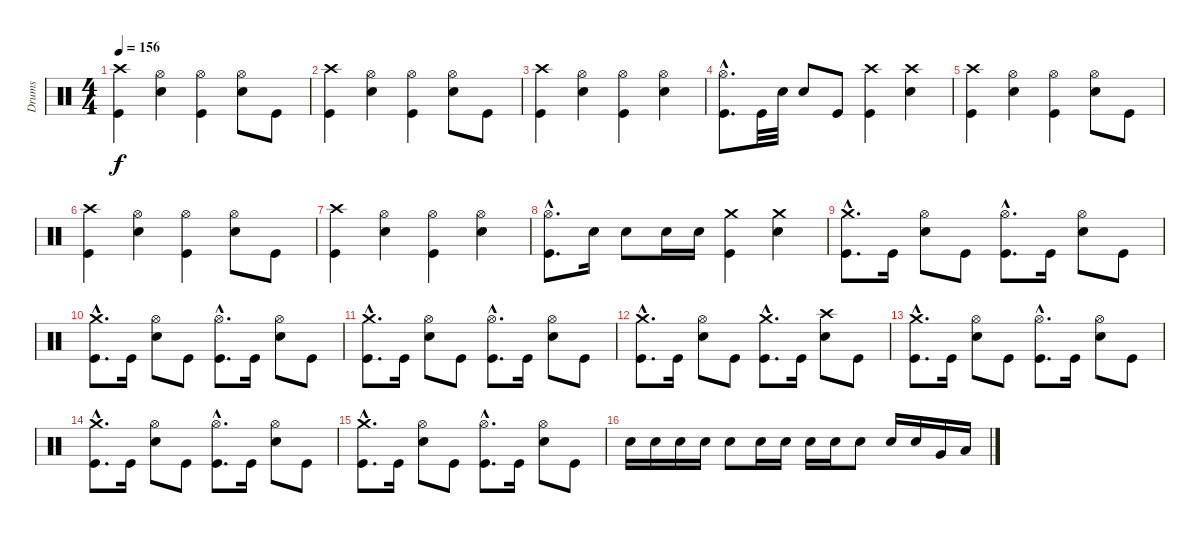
\track ("Drums" "Drums") {instrument percussion}
\staff {score}
\articulation defaults
\ts (4 4)
\tempo 156
\clef neutral
\ks c
("Kick (hit)" "Crash high (hit)").4{dy f} ("Electric Snare (hit)" "Hi-Hat (open)").4 ("Kick (hit)" "Hi-Hat (open)").4 ("Electric Snare (hit)" "Hi-Hat (open)").8 "Kick (hit)".8 |
("Kick (hit)" "Crash high (hit)").4 ("Electric Snare (hit)" "Hi-Hat (open)").4 ("Kick (hit)" "Hi-Hat (open)").4 ("Electric Snare (hit)" "Hi-Hat (open)").8 "Kick (hit)".8 |
("Kick (hit)" "Crash high (hit)").4 ("Electric Snare (hit)" "Hi-Hat (open)").4 ("Kick (hit)" "Hi-Hat (open)").4 ("Electric Snare (hit)" "Hi-Hat (open)").4 |
("Kick (hit)"{hac} "Hi-Hat (open)").8{d} "Kick (hit)".32 "Electric Snare (hit)".32 "Electric Snare (hit)".8 "Kick (hit)".8 ("Kick (hit)" "Crash high (hit)").4 ("Electric Snare (hit)" "Crash high (hit)").4 |
("Kick (hit)" "Crash high (hit)").4 ("Electric Snare (hit)" "Hi-Hat (open)").4 ("Kick (hit)" "Hi-Hat (open)").4 ("Electric Snare (hit)" "Hi-Hat (open)").8 "Kick (hit)".8 |
("Kick (hit)" "Crash high (hit)").4 ("Electric Snare (hit)" "Hi-Hat (open)").4 ("Kick (hit)" "Hi-Hat (open)").4 ("Electric Snare (hit)" "Hi-Hat (open)").8 "Kick (hit)".8 |
("Kick (hit)" "Crash high (hit)").4 ("Electric Snare (hit)" "Hi-Hat (open)").4 ("Kick (hit)" "Hi-Hat (open)").4 ("Electric Snare (hit)" "Hi-Hat (open)").4 |
("Kick (hit)" "Hi-Hat (open)"{hac}).8{d} "Electric Snare (hit)".16 "Electric Snare (hit)".8 "Electric Snare (hit)".16 "Electric Snare (hit)".16 ("Kick (hit)" "Crash medium (hit)").4 ("Electric Snare (hit)" "Crash medium (hit)").4 |
("Kick (hit)"{hac} "Crash medium (hit)").8{d} "Kick (hit)".16 ("Electric Snare (hit)" "Hi-Hat (open)").8 "Kick (hit)".8 ("Kick (hit)"{hac} "Hi-Hat (open)").8{d} "Kick (hit)".16 ("Electric Snare (hit)" "Hi-Hat (open)").8 "Kick (hit)".8 |
("Kick (hit)"{hac} "Crash medium (hit)").8{d} "Kick (hit)".16 ("Electric Snare (hit)" "Hi-Hat (open)").8 "Kick (hit)".8 ("Kick (hit)"{hac} "Hi-Hat (open)").8{d} "Kick (hit)".16 ("Electric Snare (hit)" "Hi-Hat (open)").8 "Kick (hit)".8 |
("Kick (hit)"{hac} "Crash medium (hit)").8{d} "Kick (hit)".16 ("Electric Snare (hit)" "Hi-Hat (open)").8 "Kick (hit)".8 ("Kick (hit)"{hac} "Hi-Hat (open)").8{d} "Kick (hit)".16 ("Electric Snare (hit)" "Hi-Hat (open)").8 "Kick (hit)".8 |
("Kick (hit)"{hac} "Crash medium (hit)").8{d} "Kick (hit)".16 ("Electric Snare (hit)" "Hi-Hat (open)").8 "Kick (hit)".8 ("Kick (hit)"{hac} "Crash medium (hit)").8{d} "Kick (hit)".16 ("Electric Snare (hit)" "Crash high (hit)").8 "Kick (hit)".8 |
("Kick (hit)"{hac} "Crash medium (hit)").8{d} "Kick (hit)".16 ("Electric Snare (hit)" "Hi-Hat (open)").8 "Kick (hit)".8 ("Kick (hit)"{hac} "Hi-Hat (open)").8{d} "Kick (hit)".16 ("Electric Snare (hit)" "Hi-Hat (open)").8 "Kick (hit)".8 |
("Kick (hit)"{hac} "Crash medium (hit)").8{d} "Kick (hit)".16 ("Electric Snare (hit)" "Hi-Hat (open)").8 "Kick (hit)".8 ("Kick (hit)"{hac} "Hi-Hat (open)").8{d} "Kick (hit)".16 ("Electric Snare (hit)" "Hi-Hat (open)").8 "Kick (hit)".8 |
("Kick (hit)"{hac} "Crash medium (hit)").8{d} "Kick (hit)".16 ("Electric Snare (hit)" "Hi-Hat (open)").8 "Kick (hit)".8 ("Kick (hit)"{hac} "Hi-Hat (open)").8{d} "Kick (hit)".16 ("Electric Snare (hit)" "Hi-Hat (open)").8 "Kick (hit)".8 |
"Electric Snare (hit)".16 "Electric Snare (hit)".16 "Electric Snare (hit)".16 "Electric Snare (hit)".16 "Electric Snare (hit)".8 "Electric Snare (hit)".16 "Electric Snare (hit)".16 "Electric Snare (hit)".16 "Electric Snare (hit)".16 "Electric Snare (hit)".8 "Electric Snare (hit)".16 "Electric Snare (hit)".16 "Very Low Tom (hit)".16 "Low Floor Tom (hit)".16
